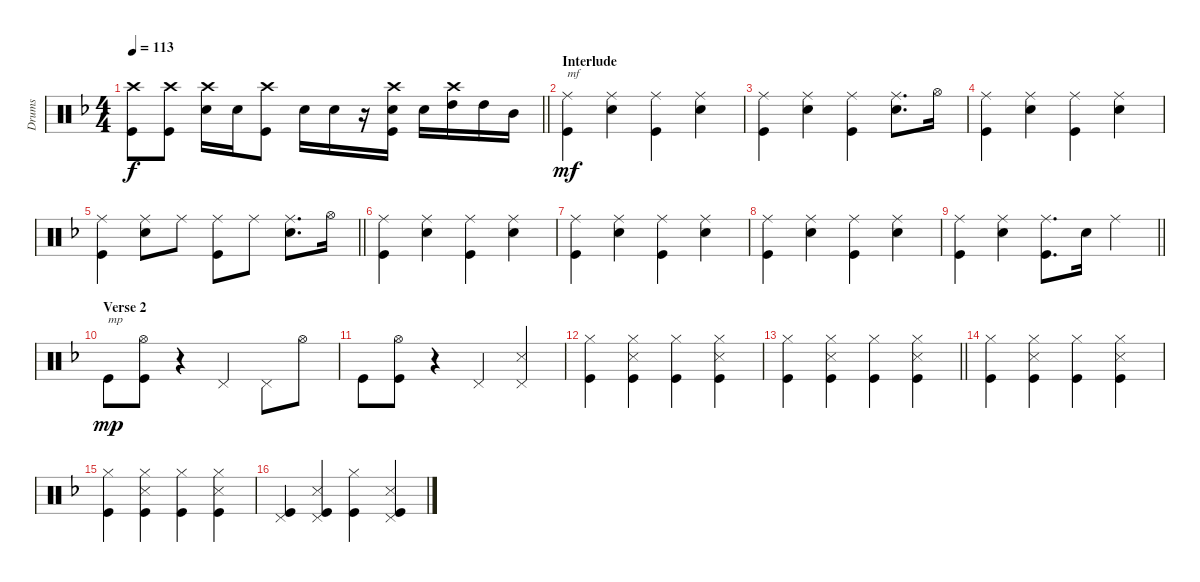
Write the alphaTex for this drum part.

\track ("Drums" "Drums") {instrument percussion}
\staff {score}
\articulation defaults
\ts (4 4)
\tempo 113
\clef neutral
\barLineRight lightlight
\ks dminor
("Crash high (hit)" "Kick (hit)").8{dy f} ("Crash high (hit)" "Kick (hit)").8 ("Crash high (hit)" "Electric Snare (hit)").16 "Electric Snare (hit)".16 ("Crash high (hit)" "Kick (hit)").8 "Electric Snare (hit)".16 "Electric Snare (hit)".16 r.16 ("Crash high (hit)" "Electric Snare (hit)" "Kick (hit)").16 "Electric Snare (hit)".16 ("Crash high (hit)" "High Tom (hit)").16 "High Tom (hit)".16 "Mid Tom (hit)".16 |
\section ("" "Interlude")
("Ride (middle)" "Kick (hit)").4{txt "mf" dy mf} ("Ride (middle)" "Electric Snare (hit)").4 ("Ride (middle)" "Kick (hit)").4 ("Ride (middle)" "Electric Snare (hit)").4 |
("Ride (middle)" "Kick (hit)").4 ("Ride (middle)" "Electric Snare (hit)").4 ("Ride (middle)" "Kick (hit)").4 ("Ride (middle)" "Electric Snare (hit)").8{d} "Hi-Hat (open)".16 |
("Ride (middle)" "Kick (hit)").4 ("Ride (middle)" "Electric Snare (hit)").4 ("Ride (middle)" "Kick (hit)").4 ("Ride (middle)" "Electric Snare (hit)").4 |
\barLineRight lightlight
("Ride (middle)" "Kick (hit)").4 ("Ride (middle)" "Electric Snare (hit)").8 "Ride (middle)".8 ("Ride (middle)" "Kick (hit)").8 "Ride (middle)".8 ("Ride (middle)" "Electric Snare (hit)").8{d} "Hi-Hat (open)".16 |
\section ("" "")
("Ride (middle)" "Kick (hit)").4 ("Ride (middle)" "Electric Snare (hit)").4 ("Ride (middle)" "Kick (hit)").4 ("Ride (middle)" "Electric Snare (hit)").4 |
("Ride (middle)" "Kick (hit)").4 ("Ride (middle)" "Electric Snare (hit)").4 ("Ride (middle)" "Kick (hit)").4 ("Ride (middle)" "Electric Snare (hit)").4 |
("Ride (middle)" "Kick (hit)").4 ("Ride (middle)" "Electric Snare (hit)").4 ("Ride (middle)" "Kick (hit)").4 ("Ride (middle)" "Electric Snare (hit)").4 |
\barLineRight lightlight
("Ride (middle)" "Kick (hit)").4 ("Ride (middle)" "Electric Snare (hit)").4 ("Ride (middle)" "Kick (hit)").8{d} "Electric Snare (hit)".16 "Ride (middle)".4 |
\section ("" "Verse 2")
"Kick (hit)".8{txt "mp" dy mp} ("Hi-Hat (open)" "Kick (hit)").8 r.4 "Pedal Hi-Hat (hit)".4 "Pedal Hi-Hat (hit)".8 "Hi-Hat (open)".8 |
"Kick (hit)".8 ("Hi-Hat (open)" "Kick (hit)").8 r.4 "Pedal Hi-Hat (hit)".4 ("Pedal Hi-Hat (hit)" "Snare (side stick) 3").4 |
("Hi-Hat (closed)" "Kick (hit)").4 ("Hi-Hat (closed)" "Snare (side stick) 3" "Kick (hit)").4 ("Hi-Hat (closed)" "Kick (hit)").4 ("Hi-Hat (closed)" "Snare (side stick) 3" "Kick (hit)").4 |
\barLineRight lightlight
("Hi-Hat (closed)" "Kick (hit)").4 ("Hi-Hat (closed)" "Snare (side stick) 3" "Kick (hit)").4 ("Hi-Hat (closed)" "Kick (hit)").4 ("Hi-Hat (closed)" "Snare (side stick) 3" "Kick (hit)").4 |
\section ("" "")
("Hi-Hat (closed)" "Kick (hit)").4 ("Hi-Hat (closed)" "Snare (side stick) 3" "Kick (hit)").4 ("Hi-Hat (closed)" "Kick (hit)").4 ("Hi-Hat (closed)" "Snare (side stick) 3" "Kick (hit)").4 |
("Hi-Hat (closed)" "Kick (hit)").4 ("Hi-Hat (closed)" "Snare (side stick) 3" "Kick (hit)").4 ("Hi-Hat (closed)" "Kick (hit)").4 ("Hi-Hat (closed)" "Snare (side stick) 3" "Kick (hit)").4 |
("Pedal Hi-Hat (hit)" "Kick (hit)").4 ("Pedal Hi-Hat (hit)" "Snare (side stick) 3" "Kick (hit)").4 ("Hi-Hat (closed)" "Kick (hit)").4 ("Pedal Hi-Hat (hit)" "Snare (side stick) 3" "Kick (hit)").4
